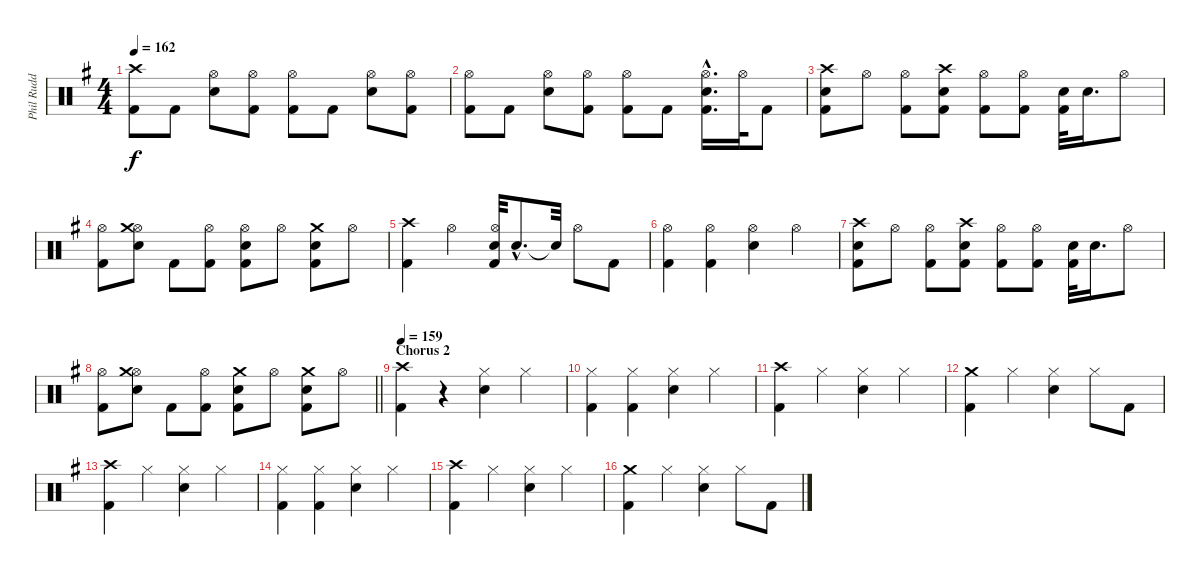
\track ("Phil Rudd" "Phil Rudd") {instrument percussion}
\staff {score}
\articulation defaults
\ts (4 4)
\tempo 162
\clef neutral
\ks g
("Crash high (hit)" "Kick (hit) 2").8{dy f} "Kick (hit) 2".8 ("Hi-Hat (open)" "Snare (hit) 2").8 ("Kick (hit) 2" "Hi-Hat (open)").8 ("Hi-Hat (open)" "Kick (hit) 2").8 "Kick (hit) 2".8 ("Hi-Hat (open)" "Snare (hit) 2").8 ("Hi-Hat (open)" "Kick (hit) 2").8 |
("Hi-Hat (open)" "Kick (hit) 2").8 "Kick (hit) 2".8 ("Hi-Hat (open)" "Snare (hit) 2").8 ("Hi-Hat (open)" "Kick (hit) 2").8 ("Hi-Hat (open)" "Kick (hit) 2").8 "Kick (hit) 2".8 ("Kick (hit) 2" "Hi-Hat (open)"{hac} "Snare (hit) 2").16{d} "Hi-Hat (open)".32 "Kick (hit) 2".8 |
("Crash high (hit)" "Snare (hit) 2" "Kick (hit) 2").8 "Hi-Hat (open)".8 ("Hi-Hat (open)" "Kick (hit) 2").8 ("Crash high (hit)" "Snare (hit) 2" "Kick (hit) 2").8 ("Hi-Hat (open)" "Kick (hit) 2").8 ("Kick (hit) 2" "Hi-Hat (open)").8 ("Snare (hit) 2" "Kick (hit) 2").32 "Snare (hit) 2".16{d} "Hi-Hat (open)".8 |
("Kick (hit) 2" "Hi-Hat (open)").8 ("Hi-Hat (open)" "Crash medium (hit)" "Snare (hit) 2").8 "Kick (hit) 2".8 ("Kick (hit) 2" "Hi-Hat (open)").8 ("Hi-Hat (open)" "Kick (hit) 2" "Snare (hit) 2").8 "Hi-Hat (open)".8 ("Snare (hit) 2" "Kick (hit) 2" "Crash medium (hit)").8 "Hi-Hat (open)".8 |
("Crash high (hit)" "Kick (hit) 2").4 "Hi-Hat (open)".4 ("Snare (hit) 2" "Kick (hit) 2" "Hi-Hat (open)").32 "Snare (hit) 2"{hac}.8{d} "Snare (hit)"{t}.32 "Hi-Hat (open)".8 "Kick (hit) 2".8 |
("Hi-Hat (open)" "Kick (hit) 2").4 ("Kick (hit) 2" "Hi-Hat (open)").4 ("Hi-Hat (open)" "Snare (hit) 2").4 "Hi-Hat (open)".4 |
("Crash high (hit)" "Snare (hit) 2" "Kick (hit) 2").8 "Hi-Hat (open)".8 ("Hi-Hat (open)" "Kick (hit) 2").8 ("Crash high (hit)" "Snare (hit) 2" "Kick (hit) 2").8 ("Hi-Hat (open)" "Kick (hit) 2").8 ("Kick (hit) 2" "Hi-Hat (open)").8 ("Snare (hit) 2" "Kick (hit) 2").32 "Snare (hit) 2".16{d} "Hi-Hat (open)".8 |
\barLineRight lightlight
("Kick (hit) 2" "Hi-Hat (open)").8 ("Hi-Hat (open)" "Crash medium (hit)" "Snare (hit) 2").8 "Kick (hit) 2".8 ("Kick (hit) 2" "Hi-Hat (open)").8 ("Crash medium (hit)" "Kick (hit) 2" "Snare (hit) 2").8 "Hi-Hat (open)".8 ("Snare (hit) 2" "Kick (hit) 2" "Crash medium (hit)").8 "Hi-Hat (open)".8 |
\section ("" "Chorus 2")
\tempo 159
("Kick (hit) 2" "Crash high (hit)").4 r.4 ("Snare (hit) 2" "Hi-Hat (closed)").4 "Hi-Hat (closed)".4 |
("Kick (hit) 2" "Hi-Hat (closed)").4 ("Hi-Hat (closed)" "Kick (hit) 2").4 ("Snare (hit) 2" "Hi-Hat (closed)").4 "Hi-Hat (closed)".4 |
("Kick (hit) 2" "Crash high (hit)").4 "Hi-Hat (closed)".4 ("Snare (hit) 2" "Hi-Hat (closed)").4 "Hi-Hat (closed)".4 |
("Kick (hit) 2" "Crash medium (hit)").4 "Hi-Hat (closed)".4 ("Hi-Hat (closed)" "Snare (hit) 2").4 "Hi-Hat (closed)".8 "Kick (hit) 2".8 |
("Crash high (hit)" "Kick (hit) 2").4 "Hi-Hat (closed)".4 ("Hi-Hat (closed)" "Snare (hit) 2").4 "Hi-Hat (closed)".4 |
("Kick (hit) 2" "Hi-Hat (closed)").4 ("Hi-Hat (closed)" "Kick (hit) 2").4 ("Hi-Hat (closed)" "Snare (hit) 2").4 "Hi-Hat (closed)".4 |
("Kick (hit) 2" "Crash high (hit)").4 "Hi-Hat (closed)".4 ("Snare (hit) 2" "Hi-Hat (closed)").4 "Hi-Hat (closed)".4 |
("Crash medium (hit)" "Kick (hit) 2").4 "Hi-Hat (closed)".4 ("Hi-Hat (closed)" "Snare (hit) 2").4 "Hi-Hat (closed)".8 "Kick (hit) 2".8
